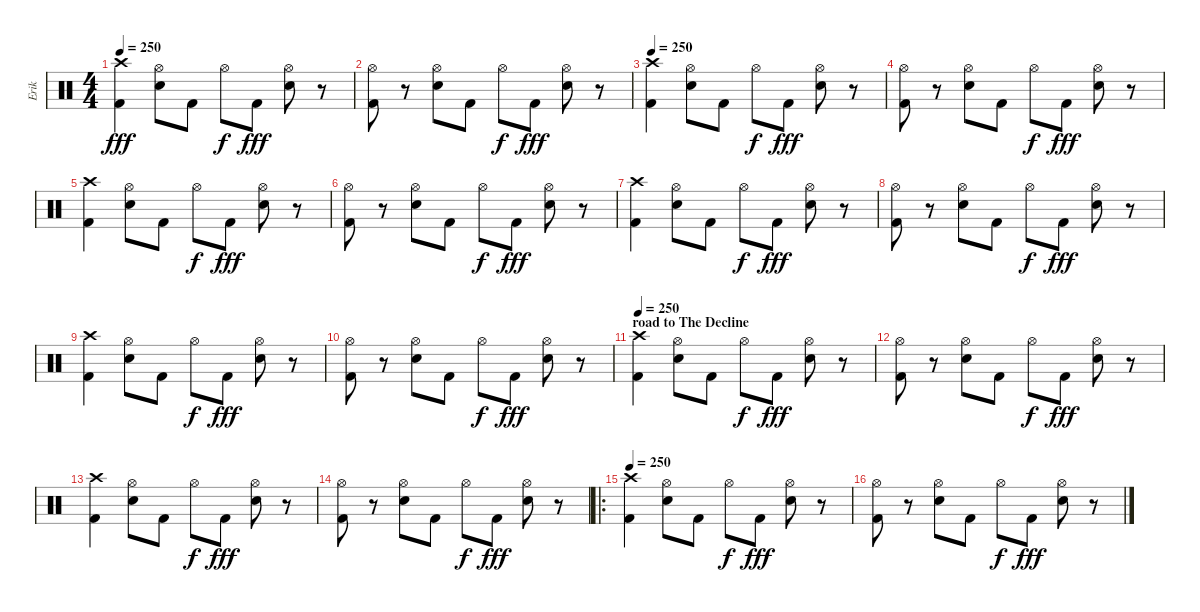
\track ("Erik" "Erik") {instrument percussion}
\staff {score}
\articulation defaults
\ts (4 4)
\tempo 250
\clef neutral
\ks c
("Kick (hit) 2" "Crash high (hit)").4{dy fff} ("Electric Snare (hit)" "Hi-Hat (open)").8 "Kick (hit) 2".8 "Hi-Hat (open)".8{dy f} "Kick (hit) 2".8{dy fff} ("Electric Snare (hit)" "Hi-Hat (open)").8 r.8 |
("Kick (hit) 2" "Hi-Hat (open)").8 r.8 ("Electric Snare (hit)" "Hi-Hat (open)").8 "Kick (hit) 2".8 "Hi-Hat (open)".8{dy f} "Kick (hit) 2".8{dy fff} ("Hi-Hat (open)" "Electric Snare (hit)").8 r.8 |
\tempo 250
("Kick (hit) 2" "Crash high (hit)").4 ("Electric Snare (hit)" "Hi-Hat (open)").8 "Kick (hit) 2".8 "Hi-Hat (open)".8{dy f} "Kick (hit) 2".8{dy fff} ("Electric Snare (hit)" "Hi-Hat (open)").8 r.8 |
("Kick (hit) 2" "Hi-Hat (open)").8 r.8 ("Electric Snare (hit)" "Hi-Hat (open)").8 "Kick (hit) 2".8 "Hi-Hat (open)".8{dy f} "Kick (hit) 2".8{dy fff} ("Hi-Hat (open)" "Electric Snare (hit)").8 r.8 |
("Kick (hit) 2" "Crash high (hit)").4 ("Electric Snare (hit)" "Hi-Hat (open)").8 "Kick (hit) 2".8 "Hi-Hat (open)".8{dy f} "Kick (hit) 2".8{dy fff} ("Electric Snare (hit)" "Hi-Hat (open)").8 r.8 |
("Kick (hit) 2" "Hi-Hat (open)").8 r.8 ("Electric Snare (hit)" "Hi-Hat (open)").8 "Kick (hit) 2".8 "Hi-Hat (open)".8{dy f} "Kick (hit) 2".8{dy fff} ("Hi-Hat (open)" "Electric Snare (hit)").8 r.8 |
("Kick (hit) 2" "Crash high (hit)").4 ("Electric Snare (hit)" "Hi-Hat (open)").8 "Kick (hit) 2".8 "Hi-Hat (open)".8{dy f} "Kick (hit) 2".8{dy fff} ("Electric Snare (hit)" "Hi-Hat (open)").8 r.8 |
("Kick (hit) 2" "Hi-Hat (open)").8 r.8 ("Electric Snare (hit)" "Hi-Hat (open)").8 "Kick (hit) 2".8 "Hi-Hat (open)".8{dy f} "Kick (hit) 2".8{dy fff} ("Hi-Hat (open)" "Electric Snare (hit)").8 r.8 |
("Kick (hit) 2" "Crash high (hit)").4 ("Electric Snare (hit)" "Hi-Hat (open)").8 "Kick (hit) 2".8 "Hi-Hat (open)".8{dy f} "Kick (hit) 2".8{dy fff} ("Electric Snare (hit)" "Hi-Hat (open)").8 r.8 |
("Kick (hit) 2" "Hi-Hat (open)").8 r.8 ("Electric Snare (hit)" "Hi-Hat (open)").8 "Kick (hit) 2".8 "Hi-Hat (open)".8{dy f} "Kick (hit) 2".8{dy fff} ("Hi-Hat (open)" "Electric Snare (hit)").8 r.8 |
\section ("" "road to The Decline")
\tempo 250
("Kick (hit) 2" "Crash high (hit)").4 ("Electric Snare (hit)" "Hi-Hat (open)").8 "Kick (hit) 2".8 "Hi-Hat (open)".8{dy f} "Kick (hit) 2".8{dy fff} ("Electric Snare (hit)" "Hi-Hat (open)").8 r.8 |
("Kick (hit) 2" "Hi-Hat (open)").8 r.8 ("Electric Snare (hit)" "Hi-Hat (open)").8 "Kick (hit) 2".8 "Hi-Hat (open)".8{dy f} "Kick (hit) 2".8{dy fff} ("Hi-Hat (open)" "Electric Snare (hit)").8 r.8 |
("Kick (hit) 2" "Crash high (hit)").4 ("Electric Snare (hit)" "Hi-Hat (open)").8 "Kick (hit) 2".8 "Hi-Hat (open)".8{dy f} "Kick (hit) 2".8{dy fff} ("Electric Snare (hit)" "Hi-Hat (open)").8 r.8 |
("Kick (hit) 2" "Hi-Hat (open)").8 r.8 ("Electric Snare (hit)" "Hi-Hat (open)").8 "Kick (hit) 2".8 "Hi-Hat (open)".8{dy f} "Kick (hit) 2".8{dy fff} ("Hi-Hat (open)" "Electric Snare (hit)").8 r.8 |
\ro
\tempo 250
("Kick (hit) 2" "Crash high (hit)").4 ("Electric Snare (hit)" "Hi-Hat (open)").8 "Kick (hit) 2".8 "Hi-Hat (open)".8{dy f} "Kick (hit) 2".8{dy fff} ("Electric Snare (hit)" "Hi-Hat (open)").8 r.8 |
("Kick (hit) 2" "Hi-Hat (open)").8 r.8 ("Electric Snare (hit)" "Hi-Hat (open)").8 "Kick (hit) 2".8 "Hi-Hat (open)".8{dy f} "Kick (hit) 2".8{dy fff} ("Hi-Hat (open)" "Electric Snare (hit)").8 r.8
